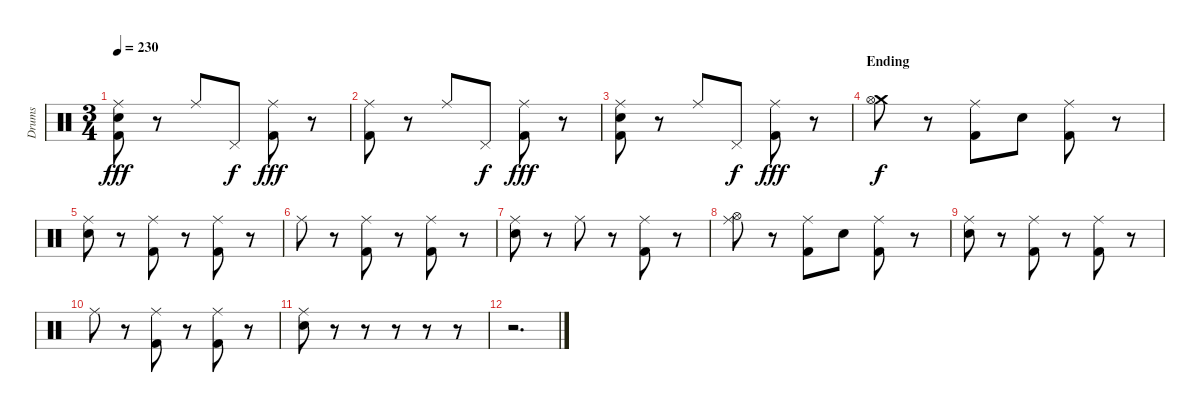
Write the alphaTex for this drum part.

\track ("Drums" "Drums") {instrument percussion}
\staff {score}
\articulation defaults
\ts (3 4)
\tempo 230
\clef neutral
\ks c
("Ride (middle)" "Electric Snare (hit)" "Kick (hit) 2").8{dy fff} r.8 "Ride (middle)".8 "Pedal Hi-Hat (hit)".8{dy f} ("Ride (middle)" "Kick (hit) 2").8{dy fff} r.8 |
("Ride (middle)" "Kick (hit) 2").8 r.8 "Ride (middle)".8 "Pedal Hi-Hat (hit)".8{dy f} ("Ride (middle)" "Kick (hit) 2").8{dy fff} r.8 |
("Ride (middle)" "Electric Snare (hit)" "Kick (hit) 2").8 r.8 "Ride (middle)".8 "Pedal Hi-Hat (hit)".8{dy f} ("Ride (middle)" "Kick (hit) 2").8{dy fff} r.8 |
\section ("" "Ending")
("Crash medium (hit)" "Hi-Hat (open)").8{dy f} r.8 ("Ride (middle)" "Kick (hit) 2").8 "Electric Snare (hit)".8 ("Ride (middle)" "Kick (hit) 2").8 r.8 |
("Ride (middle)" "Electric Snare (hit)").8 r.8 ("Ride (middle)" "Kick (hit) 2").8 r.8 ("Ride (middle)" "Kick (hit) 2").8 r.8 |
"Ride (middle)".8 r.8 ("Ride (middle)" "Kick (hit) 2").8 r.8 ("Ride (middle)" "Kick (hit) 2").8 r.8 |
("Ride (middle)" "Electric Snare (hit)").8 r.8 "Ride (middle)".8 r.8 ("Ride (middle)" "Kick (hit) 2").8 r.8 |
("Ride (middle)" "Hi-Hat (open)").8 r.8 ("Ride (middle)" "Kick (hit) 2").8 "Electric Snare (hit)".8 ("Ride (middle)" "Kick (hit) 2").8 r.8 |
("Ride (middle)" "Electric Snare (hit)").8 r.8 ("Ride (middle)" "Kick (hit) 2").8 r.8 ("Ride (middle)" "Kick (hit) 2").8 r.8 |
"Ride (middle)".8 r.8 ("Ride (middle)" "Kick (hit) 2").8 r.8 ("Ride (middle)" "Kick (hit) 2").8 r.8 |
("Ride (middle)" "Electric Snare (hit)").8 r.8 r.8 r.8 r.8 r.8 |
r.2{d}
